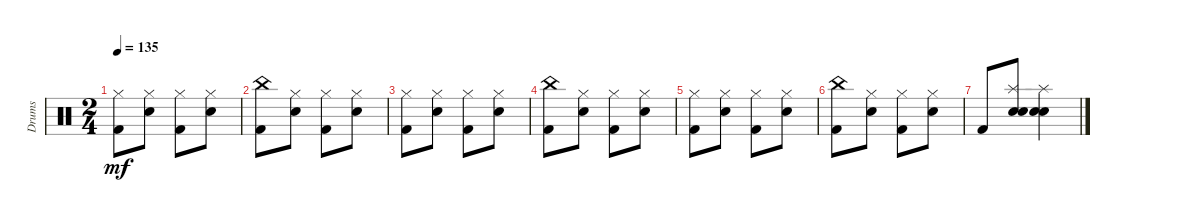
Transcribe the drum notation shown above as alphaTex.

\track ("Drums" "Drums") {instrument percussion}
\staff {score}
\articulation defaults
\ts (2 4)
\tempo 135
\clef neutral
\ks c
("Hi-Hat (closed)" "Kick (hit) 2").8{dy mf} ("Hi-Hat (closed)" "Electric Snare (hit)").8 ("Hi-Hat (closed)" "Kick (hit) 2").8 ("Hi-Hat (closed)" "Electric Snare (hit)").8 |
("China (hit)" "Kick (hit) 2").8 ("Hi-Hat (closed)" "Electric Snare (hit)").8 ("Hi-Hat (closed)" "Kick (hit) 2").8 ("Hi-Hat (closed)" "Electric Snare (hit)").8 |
("Hi-Hat (closed)" "Kick (hit) 2").8 ("Hi-Hat (closed)" "Electric Snare (hit)").8 ("Hi-Hat (closed)" "Kick (hit) 2").8 ("Hi-Hat (closed)" "Electric Snare (hit)").8 |
("China (hit)" "Kick (hit) 2").8 ("Hi-Hat (closed)" "Electric Snare (hit)").8 ("Hi-Hat (closed)" "Kick (hit) 2").8 ("Hi-Hat (closed)" "Electric Snare (hit)").8 |
("Hi-Hat (closed)" "Kick (hit) 2").8 ("Hi-Hat (closed)" "Electric Snare (hit)").8 ("Hi-Hat (closed)" "Kick (hit) 2").8 ("Hi-Hat (closed)" "Electric Snare (hit)").8 |
("China (hit)" "Kick (hit) 2").8 ("Hi-Hat (closed)" "Electric Snare (hit)").8 ("Hi-Hat (closed)" "Kick (hit) 2").8 ("Hi-Hat (closed)" "Electric Snare (hit)").8 |
"Kick (hit) 2".8 ("Splash (hit)" "Electric Snare (hit)" "Hand Clap (hit)").8 ("Splash (hit)" "Electric Snare (hit)" "Hand Clap (hit)").4
